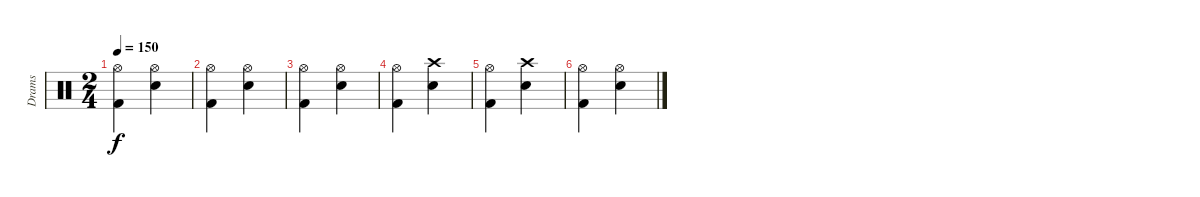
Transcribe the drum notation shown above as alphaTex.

\track ("Drams" "Drams") {instrument percussion}
\staff {score}
\articulation defaults
\ts (2 4)
\tempo 150
\clef neutral
\ks aminor
("Hi-Hat (open)" "Kick (hit) 2").4{dy f} ("Hi-Hat (open)" "Electric Snare (hit)").4 |
("Hi-Hat (open)" "Kick (hit) 2").4 ("Hi-Hat (open)" "Electric Snare (hit)").4 |
("Hi-Hat (open)" "Kick (hit) 2").4 ("Hi-Hat (open)" "Electric Snare (hit)").4 |
("Hi-Hat (open)" "Kick (hit) 2").4 ("Crash high (hit)" "Electric Snare (hit)").4 |
("Hi-Hat (open)" "Kick (hit) 2").4 ("Crash high (hit)" "Electric Snare (hit)").4 |
("Hi-Hat (open)" "Kick (hit) 2").4 ("Hi-Hat (open)" "Electric Snare (hit)").4
